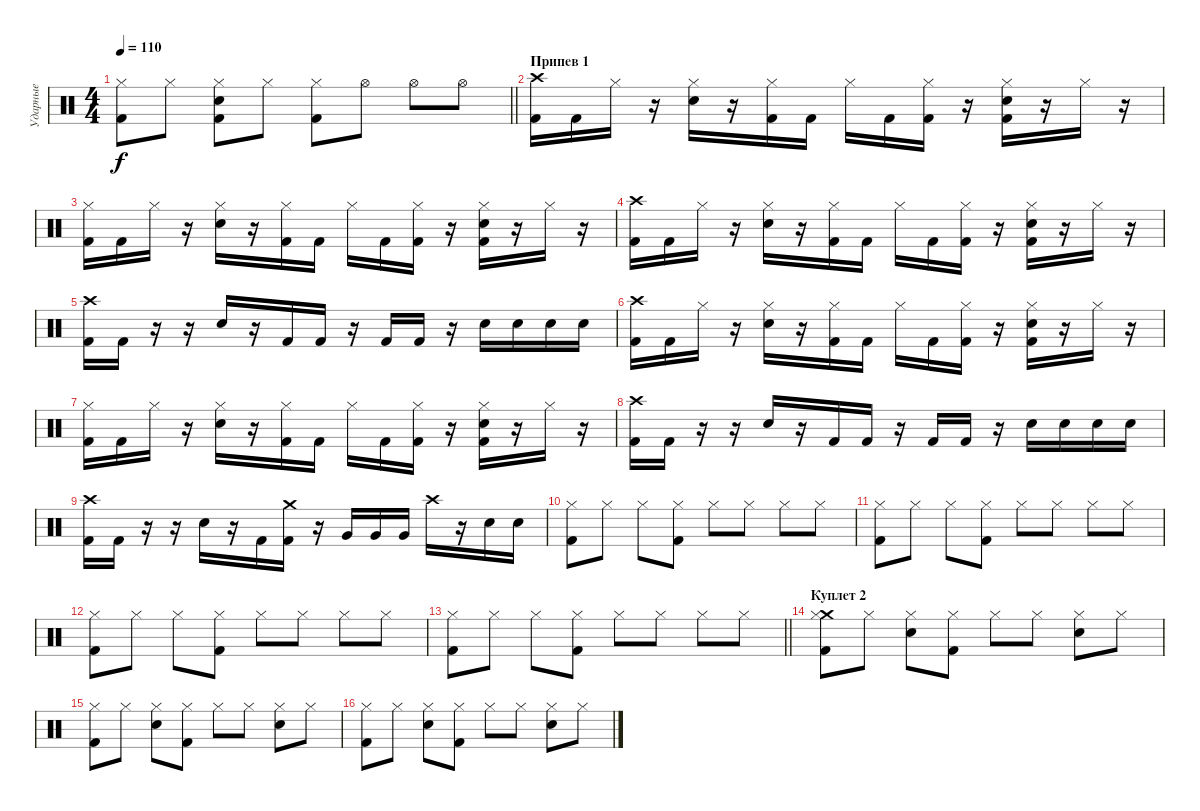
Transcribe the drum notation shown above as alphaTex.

\track ("Ударные" "Ударные") {instrument percussion}
\staff {score}
\articulation defaults
\ts (4 4)
\tempo 110
\clef neutral
\barLineRight lightlight
\ks c
("Hi-Hat (closed)" "Kick (hit) 2").8{dy f} "Hi-Hat (closed)".8 ("Hi-Hat (closed)" "Electric Snare (hit)" "Kick (hit) 2").8 "Hi-Hat (closed)".8 ("Hi-Hat (closed)" "Kick (hit) 2").8 "Hi-Hat (open)".8 "Hi-Hat (open)".8 "Hi-Hat (open)".8 |
\section ("" "Припев 1")
("Crash high (hit)" "Kick (hit) 2").16 "Kick (hit) 2".16 "Hi-Hat (closed)".16 r.16 ("Hi-Hat (closed)" "Electric Snare (hit)").16 r.16 ("Hi-Hat (closed)" "Kick (hit) 2").16 "Kick (hit) 2".16 "Hi-Hat (closed)".16 "Kick (hit) 2".16 ("Hi-Hat (closed)" "Kick (hit) 2").16 r.16 ("Hi-Hat (closed)" "Electric Snare (hit)" "Kick (hit) 2").16 r.16 "Hi-Hat (closed)".16 r.16 |
("Hi-Hat (closed)" "Kick (hit) 2").16 "Kick (hit) 2".16 "Hi-Hat (closed)".16 r.16 ("Hi-Hat (closed)" "Electric Snare (hit)").16 r.16 ("Hi-Hat (closed)" "Kick (hit) 2").16 "Kick (hit) 2".16 "Hi-Hat (closed)".16 "Kick (hit) 2".16 ("Hi-Hat (closed)" "Kick (hit) 2").16 r.16 ("Hi-Hat (closed)" "Electric Snare (hit)" "Kick (hit) 2").16 r.16 "Hi-Hat (closed)".16 r.16 |
("Crash high (hit)" "Kick (hit) 2").16 "Kick (hit) 2".16 "Hi-Hat (closed)".16 r.16 ("Hi-Hat (closed)" "Electric Snare (hit)").16 r.16 ("Hi-Hat (closed)" "Kick (hit) 2").16 "Kick (hit) 2".16 "Hi-Hat (closed)".16 "Kick (hit) 2".16 ("Hi-Hat (closed)" "Kick (hit) 2").16 r.16 ("Hi-Hat (closed)" "Electric Snare (hit)" "Kick (hit) 2").16 r.16 "Hi-Hat (closed)".16 r.16 |
("Crash high (hit)" "Kick (hit) 2").16 "Kick (hit) 2".16 r.16 r.16 "Electric Snare (hit)".16 r.16 "Kick (hit) 2".16 "Kick (hit) 2".16 r.16 "Kick (hit) 2".16 "Kick (hit) 2".16 r.16 "Electric Snare (hit)".16 "Electric Snare (hit)".16 "Electric Snare (hit)".16 "Electric Snare (hit)".16 |
("Crash high (hit)" "Kick (hit) 2").16 "Kick (hit) 2".16 "Hi-Hat (closed)".16 r.16 ("Hi-Hat (closed)" "Electric Snare (hit)").16 r.16 ("Hi-Hat (closed)" "Kick (hit) 2").16 "Kick (hit) 2".16 "Hi-Hat (closed)".16 "Kick (hit) 2".16 ("Hi-Hat (closed)" "Kick (hit) 2").16 r.16 ("Hi-Hat (closed)" "Electric Snare (hit)" "Kick (hit) 2").16 r.16 "Hi-Hat (closed)".16 r.16 |
("Hi-Hat (closed)" "Kick (hit) 2").16 "Kick (hit) 2".16 "Hi-Hat (closed)".16 r.16 ("Hi-Hat (closed)" "Electric Snare (hit)").16 r.16 ("Hi-Hat (closed)" "Kick (hit) 2").16 "Kick (hit) 2".16 "Hi-Hat (closed)".16 "Kick (hit) 2".16 ("Hi-Hat (closed)" "Kick (hit) 2").16 r.16 ("Hi-Hat (closed)" "Electric Snare (hit)" "Kick (hit) 2").16 r.16 "Hi-Hat (closed)".16 r.16 |
("Crash high (hit)" "Kick (hit) 2").16 "Kick (hit) 2".16 r.16 r.16 "Electric Snare (hit)".16 r.16 "Kick (hit) 2".16 "Kick (hit) 2".16 r.16 "Kick (hit) 2".16 "Kick (hit) 2".16 r.16 "Electric Snare (hit)".16 "Electric Snare (hit)".16 "Electric Snare (hit)".16 "Electric Snare (hit)".16 |
("Crash high (hit)" "Kick (hit) 2").16 "Kick (hit) 2".16 r.16 r.16 "Electric Snare (hit)".16 r.16 "Kick (hit) 2".16 ("Crash medium (hit)" "Kick (hit) 2").16 r.16 "Very Low Tom (hit)".16 "Very Low Tom (hit)".16 "Very Low Tom (hit)".16 "Crash high (hit)".16 r.16 "Electric Snare (hit)".16 "Electric Snare (hit)".16 |
("Hi-Hat (closed)" "Kick (hit) 2").8 "Hi-Hat (closed)".8 "Hi-Hat (closed)".8 ("Hi-Hat (closed)" "Kick (hit) 2").8 "Hi-Hat (closed)".8 "Hi-Hat (closed)".8 "Hi-Hat (closed)".8 "Hi-Hat (closed)".8 |
("Hi-Hat (closed)" "Kick (hit) 2").8 "Hi-Hat (closed)".8 "Hi-Hat (closed)".8 ("Hi-Hat (closed)" "Kick (hit) 2").8 "Hi-Hat (closed)".8 "Hi-Hat (closed)".8 "Hi-Hat (closed)".8 "Hi-Hat (closed)".8 |
("Hi-Hat (closed)" "Kick (hit) 2").8 "Hi-Hat (closed)".8 "Hi-Hat (closed)".8 ("Hi-Hat (closed)" "Kick (hit) 2").8 "Hi-Hat (closed)".8 "Hi-Hat (closed)".8 "Hi-Hat (closed)".8 "Hi-Hat (closed)".8 |
\barLineRight lightlight
("Hi-Hat (closed)" "Kick (hit) 2").8 "Hi-Hat (closed)".8 "Hi-Hat (closed)".8 ("Hi-Hat (closed)" "Kick (hit) 2").8 "Hi-Hat (closed)".8 "Hi-Hat (closed)".8 "Hi-Hat (closed)".8 "Hi-Hat (closed)".8 |
\section ("" "Куплет 2")
("Crash medium (hit)" "Hi-Hat (closed)" "Kick (hit) 2").8 "Hi-Hat (closed)".8 ("Electric Snare (hit)" "Hi-Hat (closed)").8 ("Hi-Hat (closed)" "Kick (hit) 2").8 "Hi-Hat (closed)".8 "Hi-Hat (closed)".8 ("Electric Snare (hit)" "Hi-Hat (closed)").8 "Hi-Hat (closed)".8 |
("Hi-Hat (closed)" "Kick (hit) 2").8 "Hi-Hat (closed)".8 ("Electric Snare (hit)" "Hi-Hat (closed)").8 ("Hi-Hat (closed)" "Kick (hit) 2").8 "Hi-Hat (closed)".8 "Hi-Hat (closed)".8 ("Electric Snare (hit)" "Hi-Hat (closed)").8 "Hi-Hat (closed)".8 |
("Hi-Hat (closed)" "Kick (hit) 2").8 "Hi-Hat (closed)".8 ("Electric Snare (hit)" "Hi-Hat (closed)").8 ("Hi-Hat (closed)" "Kick (hit) 2").8 "Hi-Hat (closed)".8 "Hi-Hat (closed)".8 ("Electric Snare (hit)" "Hi-Hat (closed)").8 "Hi-Hat (closed)".8
